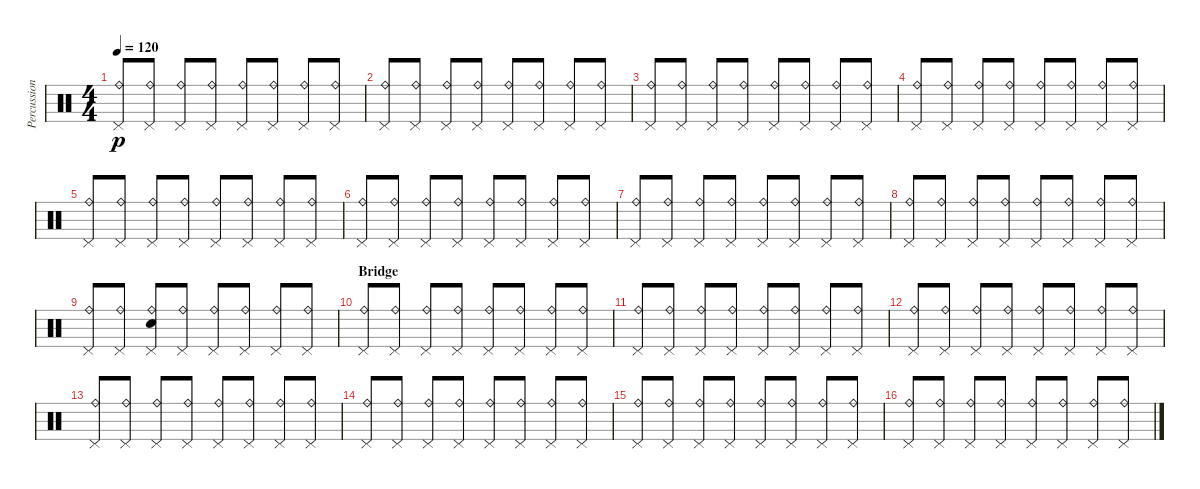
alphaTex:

\track ("Percussion 2" "Percussion") {instrument percussion}
\staff {score}
\articulation defaults
\ts (4 4)
\tempo 120
\clef neutral
\ks c
("Pedal Hi-Hat (hit)" "Ride (bell)").8{dy p} ("Pedal Hi-Hat (hit)" "Ride (bell)").8 ("Pedal Hi-Hat (hit)" "Ride (bell)").8 ("Pedal Hi-Hat (hit)" "Ride (bell)").8 ("Pedal Hi-Hat (hit)" "Ride (bell)").8 ("Pedal Hi-Hat (hit)" "Ride (bell)").8 ("Pedal Hi-Hat (hit)" "Ride (bell)").8 ("Pedal Hi-Hat (hit)" "Ride (bell)").8 |
("Pedal Hi-Hat (hit)" "Ride (bell)").8 ("Pedal Hi-Hat (hit)" "Ride (bell)").8 ("Pedal Hi-Hat (hit)" "Ride (bell)").8 ("Pedal Hi-Hat (hit)" "Ride (bell)").8 ("Pedal Hi-Hat (hit)" "Ride (bell)").8 ("Pedal Hi-Hat (hit)" "Ride (bell)").8 ("Pedal Hi-Hat (hit)" "Ride (bell)").8 ("Pedal Hi-Hat (hit)" "Ride (bell)").8 |
("Pedal Hi-Hat (hit)" "Ride (bell)").8 ("Pedal Hi-Hat (hit)" "Ride (bell)").8 ("Pedal Hi-Hat (hit)" "Ride (bell)").8 ("Pedal Hi-Hat (hit)" "Ride (bell)").8 ("Pedal Hi-Hat (hit)" "Ride (bell)").8 ("Pedal Hi-Hat (hit)" "Ride (bell)").8 ("Pedal Hi-Hat (hit)" "Ride (bell)").8 ("Pedal Hi-Hat (hit)" "Ride (bell)").8 |
("Pedal Hi-Hat (hit)" "Ride (bell)").8 ("Pedal Hi-Hat (hit)" "Ride (bell)").8 ("Pedal Hi-Hat (hit)" "Ride (bell)").8 ("Pedal Hi-Hat (hit)" "Ride (bell)").8 ("Pedal Hi-Hat (hit)" "Ride (bell)").8 ("Pedal Hi-Hat (hit)" "Ride (bell)").8 ("Pedal Hi-Hat (hit)" "Ride (bell)").8 ("Pedal Hi-Hat (hit)" "Ride (bell)").8 |
("Pedal Hi-Hat (hit)" "Ride (bell)").8 ("Pedal Hi-Hat (hit)" "Ride (bell)").8 ("Pedal Hi-Hat (hit)" "Ride (bell)").8 ("Pedal Hi-Hat (hit)" "Ride (bell)").8 ("Pedal Hi-Hat (hit)" "Ride (bell)").8 ("Pedal Hi-Hat (hit)" "Ride (bell)").8 ("Pedal Hi-Hat (hit)" "Ride (bell)").8 ("Pedal Hi-Hat (hit)" "Ride (bell)").8 |
("Pedal Hi-Hat (hit)" "Ride (bell)").8 ("Pedal Hi-Hat (hit)" "Ride (bell)").8 ("Pedal Hi-Hat (hit)" "Ride (bell)").8 ("Pedal Hi-Hat (hit)" "Ride (bell)").8 ("Pedal Hi-Hat (hit)" "Ride (bell)").8 ("Pedal Hi-Hat (hit)" "Ride (bell)").8 ("Pedal Hi-Hat (hit)" "Ride (bell)").8 ("Pedal Hi-Hat (hit)" "Ride (bell)").8 |
("Pedal Hi-Hat (hit)" "Ride (bell)").8 ("Pedal Hi-Hat (hit)" "Ride (bell)").8 ("Pedal Hi-Hat (hit)" "Ride (bell)").8 ("Pedal Hi-Hat (hit)" "Ride (bell)").8 ("Pedal Hi-Hat (hit)" "Ride (bell)").8 ("Pedal Hi-Hat (hit)" "Ride (bell)").8 ("Pedal Hi-Hat (hit)" "Ride (bell)").8 ("Pedal Hi-Hat (hit)" "Ride (bell)").8 |
("Pedal Hi-Hat (hit)" "Ride (bell)").8 ("Pedal Hi-Hat (hit)" "Ride (bell)").8 ("Pedal Hi-Hat (hit)" "Ride (bell)").8 ("Pedal Hi-Hat (hit)" "Ride (bell)").8 ("Pedal Hi-Hat (hit)" "Ride (bell)").8 ("Pedal Hi-Hat (hit)" "Ride (bell)").8 ("Pedal Hi-Hat (hit)" "Ride (bell)").8 ("Pedal Hi-Hat (hit)" "Ride (bell)").8 |
("Pedal Hi-Hat (hit)" "Ride (bell)").8 ("Pedal Hi-Hat (hit)" "Ride (bell)").8 ("Pedal Hi-Hat (hit)" "Ride (bell)" "Electric Snare (hit)").8 ("Pedal Hi-Hat (hit)" "Ride (bell)").8 ("Pedal Hi-Hat (hit)" "Ride (bell)").8 ("Pedal Hi-Hat (hit)" "Ride (bell)").8 ("Pedal Hi-Hat (hit)" "Ride (bell)").8 ("Pedal Hi-Hat (hit)" "Ride (bell)").8 |
\section ("" "Bridge")
("Pedal Hi-Hat (hit)" "Ride (bell)").8{volume 13} ("Pedal Hi-Hat (hit)" "Ride (bell)").8 ("Pedal Hi-Hat (hit)" "Ride (bell)").8 ("Pedal Hi-Hat (hit)" "Ride (bell)").8 ("Pedal Hi-Hat (hit)" "Ride (bell)").8 ("Pedal Hi-Hat (hit)" "Ride (bell)").8 ("Pedal Hi-Hat (hit)" "Ride (bell)").8 ("Pedal Hi-Hat (hit)" "Ride (bell)").8 |
("Pedal Hi-Hat (hit)" "Ride (bell)").8 ("Pedal Hi-Hat (hit)" "Ride (bell)").8 ("Pedal Hi-Hat (hit)" "Ride (bell)").8 ("Pedal Hi-Hat (hit)" "Ride (bell)").8 ("Pedal Hi-Hat (hit)" "Ride (bell)").8 ("Pedal Hi-Hat (hit)" "Ride (bell)").8 ("Pedal Hi-Hat (hit)" "Ride (bell)").8 ("Pedal Hi-Hat (hit)" "Ride (bell)").8 |
("Pedal Hi-Hat (hit)" "Ride (bell)").8 ("Pedal Hi-Hat (hit)" "Ride (bell)").8 ("Pedal Hi-Hat (hit)" "Ride (bell)").8 ("Pedal Hi-Hat (hit)" "Ride (bell)").8 ("Pedal Hi-Hat (hit)" "Ride (bell)").8 ("Pedal Hi-Hat (hit)" "Ride (bell)").8 ("Pedal Hi-Hat (hit)" "Ride (bell)").8 ("Pedal Hi-Hat (hit)" "Ride (bell)").8 |
("Pedal Hi-Hat (hit)" "Ride (bell)").8 ("Pedal Hi-Hat (hit)" "Ride (bell)").8 ("Pedal Hi-Hat (hit)" "Ride (bell)").8 ("Pedal Hi-Hat (hit)" "Ride (bell)").8 ("Pedal Hi-Hat (hit)" "Ride (bell)").8 ("Pedal Hi-Hat (hit)" "Ride (bell)").8 ("Pedal Hi-Hat (hit)" "Ride (bell)").8 ("Pedal Hi-Hat (hit)" "Ride (bell)").8 |
("Pedal Hi-Hat (hit)" "Ride (bell)").8 ("Pedal Hi-Hat (hit)" "Ride (bell)").8 ("Pedal Hi-Hat (hit)" "Ride (bell)").8 ("Pedal Hi-Hat (hit)" "Ride (bell)").8 ("Pedal Hi-Hat (hit)" "Ride (bell)").8 ("Pedal Hi-Hat (hit)" "Ride (bell)").8 ("Pedal Hi-Hat (hit)" "Ride (bell)").8 ("Pedal Hi-Hat (hit)" "Ride (bell)").8 |
("Pedal Hi-Hat (hit)" "Ride (bell)").8 ("Pedal Hi-Hat (hit)" "Ride (bell)").8 ("Pedal Hi-Hat (hit)" "Ride (bell)").8 ("Pedal Hi-Hat (hit)" "Ride (bell)").8 ("Pedal Hi-Hat (hit)" "Ride (bell)").8 ("Pedal Hi-Hat (hit)" "Ride (bell)").8 ("Pedal Hi-Hat (hit)" "Ride (bell)").8 ("Pedal Hi-Hat (hit)" "Ride (bell)").8 |
("Pedal Hi-Hat (hit)" "Ride (bell)").8 ("Pedal Hi-Hat (hit)" "Ride (bell)").8 ("Pedal Hi-Hat (hit)" "Ride (bell)").8 ("Pedal Hi-Hat (hit)" "Ride (bell)").8 ("Pedal Hi-Hat (hit)" "Ride (bell)").8 ("Pedal Hi-Hat (hit)" "Ride (bell)").8 ("Pedal Hi-Hat (hit)" "Ride (bell)").8 ("Pedal Hi-Hat (hit)" "Ride (bell)").8
